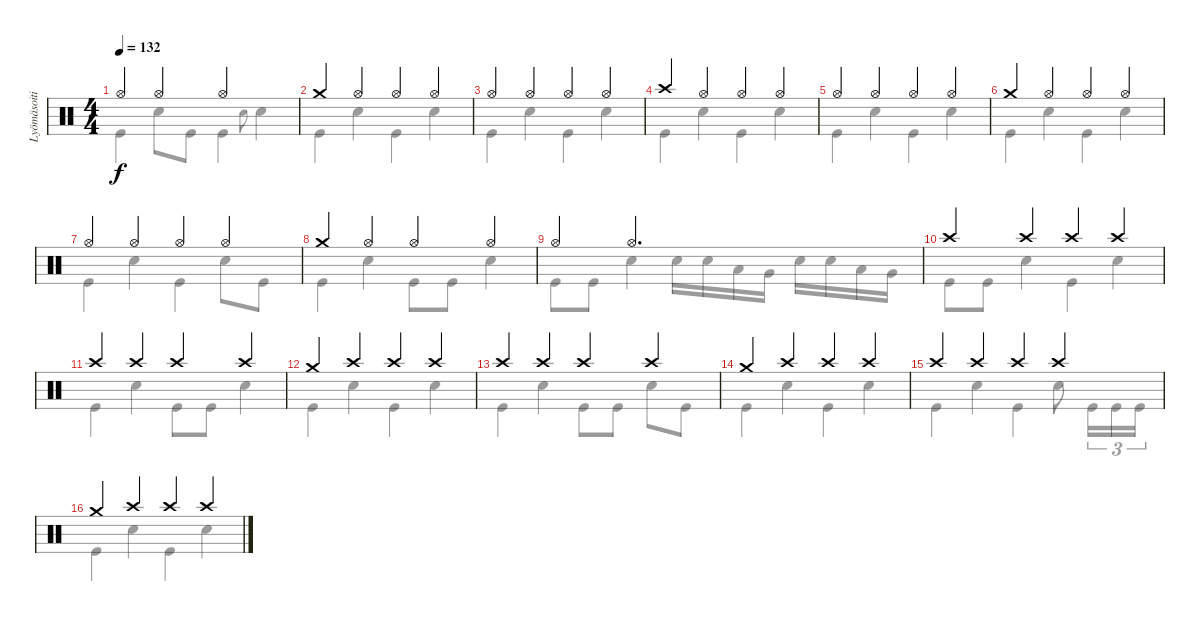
\track ("Lyömäsoitin" "Lyömäsoiti") {instrument percussion}
\staff {score}
\articulation defaults
\voice
\ts (4 4)
\tempo 132
\clef neutral
\ks c "Hi-Hat (open)".4{dy f} "Hi-Hat (open)".4 "Hi-Hat (open)".2
|
"Crash medium (hit)".4 "Hi-Hat (open)".4 "Hi-Hat (open)".4 "Hi-Hat (open)".4 |
"Hi-Hat (open)".4 "Hi-Hat (open)".4 "Hi-Hat (open)".4 "Hi-Hat (open)".4 |
"Crash high (hit)".4 "Hi-Hat (open)".4 "Hi-Hat (open)".4 "Hi-Hat (open)".4 |
"Hi-Hat (open)".4 "Hi-Hat (open)".4 "Hi-Hat (open)".4 "Hi-Hat (open)".4 |
"Crash medium (hit)".4 "Hi-Hat (open)".4 "Hi-Hat (open)".4 "Hi-Hat (open)".4 |
"Hi-Hat (open)".4 "Hi-Hat (open)".4 "Hi-Hat (open)".4 "Hi-Hat (open)".4 |
"Crash medium (hit)".4 "Hi-Hat (open)".4 "Hi-Hat (open)".4 "Hi-Hat (open)".4 |
"Hi-Hat (open)".4 "Hi-Hat (open)".2{d} |
"Crash high (hit)".4 "Crash high (hit)".4 "Crash high (hit)".4 "Crash high (hit)".4 |
"Crash high (hit)".4 "Crash high (hit)".4 "Crash high (hit)".4 "Crash high (hit)".4 |
"Crash medium (hit)".4 "Crash high (hit)".4 "Crash high (hit)".4 "Crash high (hit)".4 |
"Crash high (hit)".4 "Crash high (hit)".4 "Crash high (hit)".4 "Crash high (hit)".4 |
"Crash medium (hit)".4 "Crash high (hit)".4 "Crash high (hit)".4 "Crash high (hit)".4 |
"Crash high (hit)".4 "Crash high (hit)".4 "Crash high (hit)".4 "Crash high (hit)".4 |
"Crash medium (hit)".4 "Crash high (hit)".4 "Crash high (hit)".4 "Crash high (hit)".4
\voice
\clef neutral
\ottava regular
\simile none
\ks c "Kick (hit)".4{dy f} "Electric Snare (hit)".8 "Kick (hit)".8 "Kick (hit)".4 "Electric Snare (hit)"{h}.8{gr onbeat} "Electric Snare (hit)".4
|
"Kick (hit)".4 "Electric Snare (hit)".4 "Kick (hit)".4 "Electric Snare (hit)".4 |
"Kick (hit)".4 "Electric Snare (hit)".4 "Kick (hit)".4 "Electric Snare (hit)".4 |
"Kick (hit)".4 "Electric Snare (hit)".4 "Kick (hit)".4 "Electric Snare (hit)".4 |
"Kick (hit)".4 "Electric Snare (hit)".4 "Kick (hit)".4 "Electric Snare (hit)".4 |
"Kick (hit)".4 "Electric Snare (hit)".4 "Kick (hit)".4 "Electric Snare (hit)".4 |
"Kick (hit)".4 "Electric Snare (hit)".4 "Kick (hit)".4 "Electric Snare (hit)".8 "Kick (hit)".8 |
"Kick (hit)".4 "Electric Snare (hit)".4 "Kick (hit)".8 "Kick (hit)".8 "Electric Snare (hit)".4 |
"Kick (hit)".8 "Kick (hit)".8 "Electric Snare (hit)".4 "Electric Snare (hit)".16 "Electric Snare (hit)".16 "Low Tom (hit)".16 "Very Low Tom (hit)".16 "Electric Snare (hit)".16 "Electric Snare (hit)".16 "Low Tom (hit)".16 "Very Low Tom (hit)".16 |
"Kick (hit)".8 "Kick (hit)".8 "Electric Snare (hit)".4 "Kick (hit)".4 "Electric Snare (hit)".4 |
"Kick (hit)".4 "Electric Snare (hit)".4 "Kick (hit)".8 "Kick (hit)".8 "Electric Snare (hit)".4 |
"Kick (hit)".4 "Electric Snare (hit)".4 "Kick (hit)".4 "Electric Snare (hit)".4 |
"Kick (hit)".4 "Electric Snare (hit)".4 "Kick (hit)".8 "Kick (hit)".8 "Electric Snare (hit)".8 "Kick (hit)".8 |
"Kick (hit)".4 "Electric Snare (hit)".4 "Kick (hit)".4 "Electric Snare (hit)".4 |
"Kick (hit)".4 "Electric Snare (hit)".4 "Kick (hit)".4 "Electric Snare (hit)".8 "Kick (hit)".16{tu (3 2)} "Kick (hit)".16{tu (3 2)} "Kick (hit)".16{tu (3 2)} |
"Kick (hit)".4 "Electric Snare (hit)".4 "Kick (hit)".4 "Electric Snare (hit)".4
